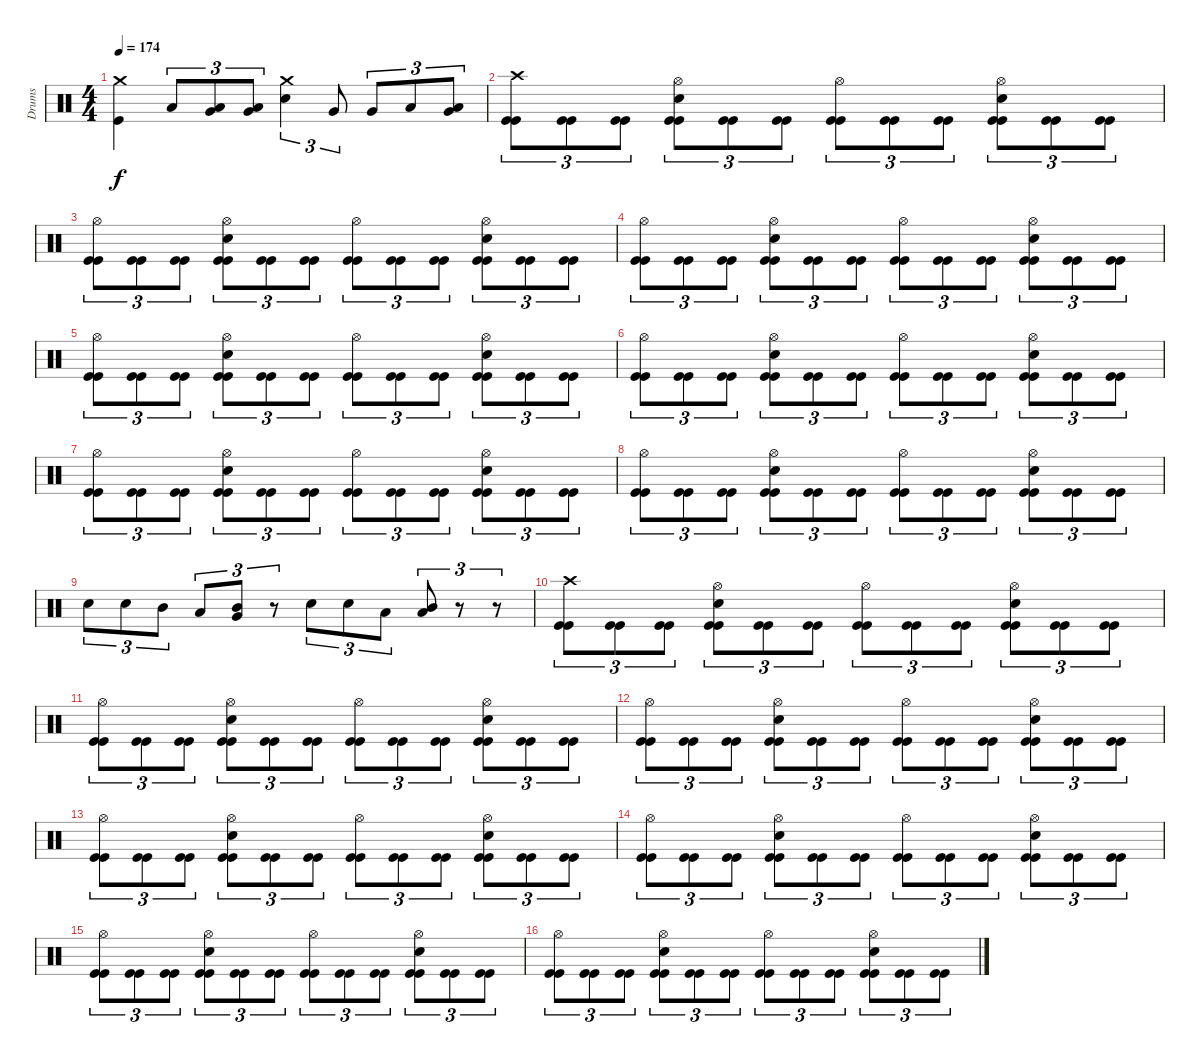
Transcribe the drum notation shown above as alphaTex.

\track ("Drums" "Drums") {instrument percussion}
\staff {score}
\articulation defaults
\ts (4 4)
\tempo 174
\clef neutral
\ks c
("Kick (hit)" "Crash medium (hit)").4{dy f} "Low Tom (hit)".8{tu (3 2)} ("Very Low Tom (hit)" "Low Tom (hit)").8{tu (3 2)} ("Very Low Tom (hit)" "Low Tom (hit)").8{tu (3 2)} ("Electric Snare (hit)" "Crash medium (hit)").4{tu (3 2)} "Very Low Tom (hit)".8{tu (3 2)} "Very Low Tom (hit)".8{tu (3 2)} "Low Tom (hit)".8{tu (3 2)} ("Low Tom (hit)" "Very Low Tom (hit)").8{tu (3 2)} |
("Kick (hit)" "Kick (hit)" "Crash high (hit)").8{tu (3 2)} ("Kick (hit)" "Kick (hit)").8{tu (3 2)} ("Kick (hit)" "Kick (hit)").8{tu (3 2)} ("Kick (hit)" "Kick (hit)" "Snare (hit) 2" "Hi-Hat (open)").8{tu (3 2)} ("Kick (hit)" "Kick (hit)").8{tu (3 2)} ("Kick (hit)" "Kick (hit)").8{tu (3 2)} ("Kick (hit)" "Kick (hit)" "Hi-Hat (open)").8{tu (3 2)} ("Kick (hit)" "Kick (hit)").8{tu (3 2)} ("Kick (hit)" "Kick (hit)").8{tu (3 2)} ("Kick (hit)" "Kick (hit)" "Snare (hit) 2" "Hi-Hat (open)").8{tu (3 2)} ("Kick (hit)" "Kick (hit)").8{tu (3 2)} ("Kick (hit)" "Kick (hit)").8{tu (3 2)} |
("Kick (hit)" "Kick (hit)" "Hi-Hat (open)").8{tu (3 2)} ("Kick (hit)" "Kick (hit)").8{tu (3 2)} ("Kick (hit)" "Kick (hit)").8{tu (3 2)} ("Kick (hit)" "Kick (hit)" "Snare (hit) 2" "Hi-Hat (open)").8{tu (3 2)} ("Kick (hit)" "Kick (hit)").8{tu (3 2)} ("Kick (hit)" "Kick (hit)").8{tu (3 2)} ("Kick (hit)" "Kick (hit)" "Hi-Hat (open)").8{tu (3 2)} ("Kick (hit)" "Kick (hit)").8{tu (3 2)} ("Kick (hit)" "Kick (hit)").8{tu (3 2)} ("Kick (hit)" "Kick (hit)" "Snare (hit) 2" "Hi-Hat (open)").8{tu (3 2)} ("Kick (hit)" "Kick (hit)").8{tu (3 2)} ("Kick (hit)" "Kick (hit)").8{tu (3 2)} |
("Kick (hit)" "Kick (hit)" "Hi-Hat (open)").8{tu (3 2)} ("Kick (hit)" "Kick (hit)").8{tu (3 2)} ("Kick (hit)" "Kick (hit)").8{tu (3 2)} ("Kick (hit)" "Kick (hit)" "Snare (hit) 2" "Hi-Hat (open)").8{tu (3 2)} ("Kick (hit)" "Kick (hit)").8{tu (3 2)} ("Kick (hit)" "Kick (hit)").8{tu (3 2)} ("Kick (hit)" "Kick (hit)" "Hi-Hat (open)").8{tu (3 2)} ("Kick (hit)" "Kick (hit)").8{tu (3 2)} ("Kick (hit)" "Kick (hit)").8{tu (3 2)} ("Kick (hit)" "Kick (hit)" "Snare (hit) 2" "Hi-Hat (open)").8{tu (3 2)} ("Kick (hit)" "Kick (hit)").8{tu (3 2)} ("Kick (hit)" "Kick (hit)").8{tu (3 2)} |
("Kick (hit)" "Kick (hit)" "Hi-Hat (open)").8{tu (3 2)} ("Kick (hit)" "Kick (hit)").8{tu (3 2)} ("Kick (hit)" "Kick (hit)").8{tu (3 2)} ("Kick (hit)" "Kick (hit)" "Snare (hit) 2" "Hi-Hat (open)").8{tu (3 2)} ("Kick (hit)" "Kick (hit)").8{tu (3 2)} ("Kick (hit)" "Kick (hit)").8{tu (3 2)} ("Kick (hit)" "Kick (hit)" "Hi-Hat (open)").8{tu (3 2)} ("Kick (hit)" "Kick (hit)").8{tu (3 2)} ("Kick (hit)" "Kick (hit)").8{tu (3 2)} ("Kick (hit)" "Kick (hit)" "Snare (hit) 2" "Hi-Hat (open)").8{tu (3 2)} ("Kick (hit)" "Kick (hit)").8{tu (3 2)} ("Kick (hit)" "Kick (hit)").8{tu (3 2)} |
("Kick (hit)" "Kick (hit)" "Hi-Hat (open)").8{tu (3 2)} ("Kick (hit)" "Kick (hit)").8{tu (3 2)} ("Kick (hit)" "Kick (hit)").8{tu (3 2)} ("Kick (hit)" "Kick (hit)" "Snare (hit) 2" "Hi-Hat (open)").8{tu (3 2)} ("Kick (hit)" "Kick (hit)").8{tu (3 2)} ("Kick (hit)" "Kick (hit)").8{tu (3 2)} ("Kick (hit)" "Kick (hit)" "Hi-Hat (open)").8{tu (3 2)} ("Kick (hit)" "Kick (hit)").8{tu (3 2)} ("Kick (hit)" "Kick (hit)").8{tu (3 2)} ("Kick (hit)" "Kick (hit)" "Snare (hit) 2" "Hi-Hat (open)").8{tu (3 2)} ("Kick (hit)" "Kick (hit)").8{tu (3 2)} ("Kick (hit)" "Kick (hit)").8{tu (3 2)} |
("Kick (hit)" "Kick (hit)" "Hi-Hat (open)").8{tu (3 2)} ("Kick (hit)" "Kick (hit)").8{tu (3 2)} ("Kick (hit)" "Kick (hit)").8{tu (3 2)} ("Kick (hit)" "Kick (hit)" "Snare (hit) 2" "Hi-Hat (open)").8{tu (3 2)} ("Kick (hit)" "Kick (hit)").8{tu (3 2)} ("Kick (hit)" "Kick (hit)").8{tu (3 2)} ("Kick (hit)" "Kick (hit)" "Hi-Hat (open)").8{tu (3 2)} ("Kick (hit)" "Kick (hit)").8{tu (3 2)} ("Kick (hit)" "Kick (hit)").8{tu (3 2)} ("Kick (hit)" "Kick (hit)" "Snare (hit) 2" "Hi-Hat (open)").8{tu (3 2)} ("Kick (hit)" "Kick (hit)").8{tu (3 2)} ("Kick (hit)" "Kick (hit)").8{tu (3 2)} |
("Kick (hit)" "Kick (hit)" "Hi-Hat (open)").8{tu (3 2)} ("Kick (hit)" "Kick (hit)").8{tu (3 2)} ("Kick (hit)" "Kick (hit)").8{tu (3 2)} ("Kick (hit)" "Kick (hit)" "Snare (hit) 2" "Hi-Hat (open)").8{tu (3 2)} ("Kick (hit)" "Kick (hit)").8{tu (3 2)} ("Kick (hit)" "Kick (hit)").8{tu (3 2)} ("Kick (hit)" "Kick (hit)" "Hi-Hat (open)").8{tu (3 2)} ("Kick (hit)" "Kick (hit)").8{tu (3 2)} ("Kick (hit)" "Kick (hit)").8{tu (3 2)} ("Kick (hit)" "Kick (hit)" "Snare (hit) 2" "Hi-Hat (open)").8{tu (3 2)} ("Kick (hit)" "Kick (hit)").8{tu (3 2)} ("Kick (hit)" "Kick (hit)").8{tu (3 2)} |
"Snare (hit) 2".8{tu (3 2)} "Snare (hit) 2".8{tu (3 2)} "Mid Tom (hit)".8{tu (3 2)} "Low Tom (hit)".8{tu (3 2)} ("Very Low Tom (hit)" "Mid Tom (hit)").8{tu (3 2)} r.8{tu (3 2)} "Snare (hit) 2".8{tu (3 2)} "Snare (hit) 2".8{tu (3 2)} "Low Tom (hit)".8{tu (3 2)} ("Low Floor Tom (hit)" "Mid Tom (hit)").8{tu (3 2)} r.8{tu (3 2)} r.8{tu (3 2)} |
("Kick (hit)" "Kick (hit)" "Crash high (hit)").8{tu (3 2)} ("Kick (hit)" "Kick (hit)").8{tu (3 2)} ("Kick (hit)" "Kick (hit)").8{tu (3 2)} ("Kick (hit)" "Kick (hit)" "Snare (hit) 2" "Hi-Hat (open)").8{tu (3 2)} ("Kick (hit)" "Kick (hit)").8{tu (3 2)} ("Kick (hit)" "Kick (hit)").8{tu (3 2)} ("Kick (hit)" "Kick (hit)" "Hi-Hat (open)").8{tu (3 2)} ("Kick (hit)" "Kick (hit)").8{tu (3 2)} ("Kick (hit)" "Kick (hit)").8{tu (3 2)} ("Kick (hit)" "Kick (hit)" "Snare (hit) 2" "Hi-Hat (open)").8{tu (3 2)} ("Kick (hit)" "Kick (hit)").8{tu (3 2)} ("Kick (hit)" "Kick (hit)").8{tu (3 2)} |
("Kick (hit)" "Kick (hit)" "Hi-Hat (open)").8{tu (3 2)} ("Kick (hit)" "Kick (hit)").8{tu (3 2)} ("Kick (hit)" "Kick (hit)").8{tu (3 2)} ("Kick (hit)" "Kick (hit)" "Snare (hit) 2" "Hi-Hat (open)").8{tu (3 2)} ("Kick (hit)" "Kick (hit)").8{tu (3 2)} ("Kick (hit)" "Kick (hit)").8{tu (3 2)} ("Kick (hit)" "Kick (hit)" "Hi-Hat (open)").8{tu (3 2)} ("Kick (hit)" "Kick (hit)").8{tu (3 2)} ("Kick (hit)" "Kick (hit)").8{tu (3 2)} ("Kick (hit)" "Kick (hit)" "Snare (hit) 2" "Hi-Hat (open)").8{tu (3 2)} ("Kick (hit)" "Kick (hit)").8{tu (3 2)} ("Kick (hit)" "Kick (hit)").8{tu (3 2)} |
("Kick (hit)" "Kick (hit)" "Hi-Hat (open)").8{tu (3 2)} ("Kick (hit)" "Kick (hit)").8{tu (3 2)} ("Kick (hit)" "Kick (hit)").8{tu (3 2)} ("Kick (hit)" "Kick (hit)" "Snare (hit) 2" "Hi-Hat (open)").8{tu (3 2)} ("Kick (hit)" "Kick (hit)").8{tu (3 2)} ("Kick (hit)" "Kick (hit)").8{tu (3 2)} ("Kick (hit)" "Kick (hit)" "Hi-Hat (open)").8{tu (3 2)} ("Kick (hit)" "Kick (hit)").8{tu (3 2)} ("Kick (hit)" "Kick (hit)").8{tu (3 2)} ("Kick (hit)" "Kick (hit)" "Snare (hit) 2" "Hi-Hat (open)").8{tu (3 2)} ("Kick (hit)" "Kick (hit)").8{tu (3 2)} ("Kick (hit)" "Kick (hit)").8{tu (3 2)} |
("Kick (hit)" "Kick (hit)" "Hi-Hat (open)").8{tu (3 2)} ("Kick (hit)" "Kick (hit)").8{tu (3 2)} ("Kick (hit)" "Kick (hit)").8{tu (3 2)} ("Kick (hit)" "Kick (hit)" "Snare (hit) 2" "Hi-Hat (open)").8{tu (3 2)} ("Kick (hit)" "Kick (hit)").8{tu (3 2)} ("Kick (hit)" "Kick (hit)").8{tu (3 2)} ("Kick (hit)" "Kick (hit)" "Hi-Hat (open)").8{tu (3 2)} ("Kick (hit)" "Kick (hit)").8{tu (3 2)} ("Kick (hit)" "Kick (hit)").8{tu (3 2)} ("Kick (hit)" "Kick (hit)" "Snare (hit) 2" "Hi-Hat (open)").8{tu (3 2)} ("Kick (hit)" "Kick (hit)").8{tu (3 2)} ("Kick (hit)" "Kick (hit)").8{tu (3 2)} |
("Kick (hit)" "Kick (hit)" "Hi-Hat (open)").8{tu (3 2)} ("Kick (hit)" "Kick (hit)").8{tu (3 2)} ("Kick (hit)" "Kick (hit)").8{tu (3 2)} ("Kick (hit)" "Kick (hit)" "Snare (hit) 2" "Hi-Hat (open)").8{tu (3 2)} ("Kick (hit)" "Kick (hit)").8{tu (3 2)} ("Kick (hit)" "Kick (hit)").8{tu (3 2)} ("Kick (hit)" "Kick (hit)" "Hi-Hat (open)").8{tu (3 2)} ("Kick (hit)" "Kick (hit)").8{tu (3 2)} ("Kick (hit)" "Kick (hit)").8{tu (3 2)} ("Kick (hit)" "Kick (hit)" "Snare (hit) 2" "Hi-Hat (open)").8{tu (3 2)} ("Kick (hit)" "Kick (hit)").8{tu (3 2)} ("Kick (hit)" "Kick (hit)").8{tu (3 2)} |
("Kick (hit)" "Kick (hit)" "Hi-Hat (open)").8{tu (3 2)} ("Kick (hit)" "Kick (hit)").8{tu (3 2)} ("Kick (hit)" "Kick (hit)").8{tu (3 2)} ("Kick (hit)" "Kick (hit)" "Snare (hit) 2" "Hi-Hat (open)").8{tu (3 2)} ("Kick (hit)" "Kick (hit)").8{tu (3 2)} ("Kick (hit)" "Kick (hit)").8{tu (3 2)} ("Kick (hit)" "Kick (hit)" "Hi-Hat (open)").8{tu (3 2)} ("Kick (hit)" "Kick (hit)").8{tu (3 2)} ("Kick (hit)" "Kick (hit)").8{tu (3 2)} ("Kick (hit)" "Kick (hit)" "Snare (hit) 2" "Hi-Hat (open)").8{tu (3 2)} ("Kick (hit)" "Kick (hit)").8{tu (3 2)} ("Kick (hit)" "Kick (hit)").8{tu (3 2)} |
("Kick (hit)" "Kick (hit)" "Hi-Hat (open)").8{tu (3 2)} ("Kick (hit)" "Kick (hit)").8{tu (3 2)} ("Kick (hit)" "Kick (hit)").8{tu (3 2)} ("Kick (hit)" "Kick (hit)" "Snare (hit) 2" "Hi-Hat (open)").8{tu (3 2)} ("Kick (hit)" "Kick (hit)").8{tu (3 2)} ("Kick (hit)" "Kick (hit)").8{tu (3 2)} ("Kick (hit)" "Kick (hit)" "Hi-Hat (open)").8{tu (3 2)} ("Kick (hit)" "Kick (hit)").8{tu (3 2)} ("Kick (hit)" "Kick (hit)").8{tu (3 2)} ("Kick (hit)" "Kick (hit)" "Snare (hit) 2" "Hi-Hat (open)").8{tu (3 2)} ("Kick (hit)" "Kick (hit)").8{tu (3 2)} ("Kick (hit)" "Kick (hit)").8{tu (3 2)}
